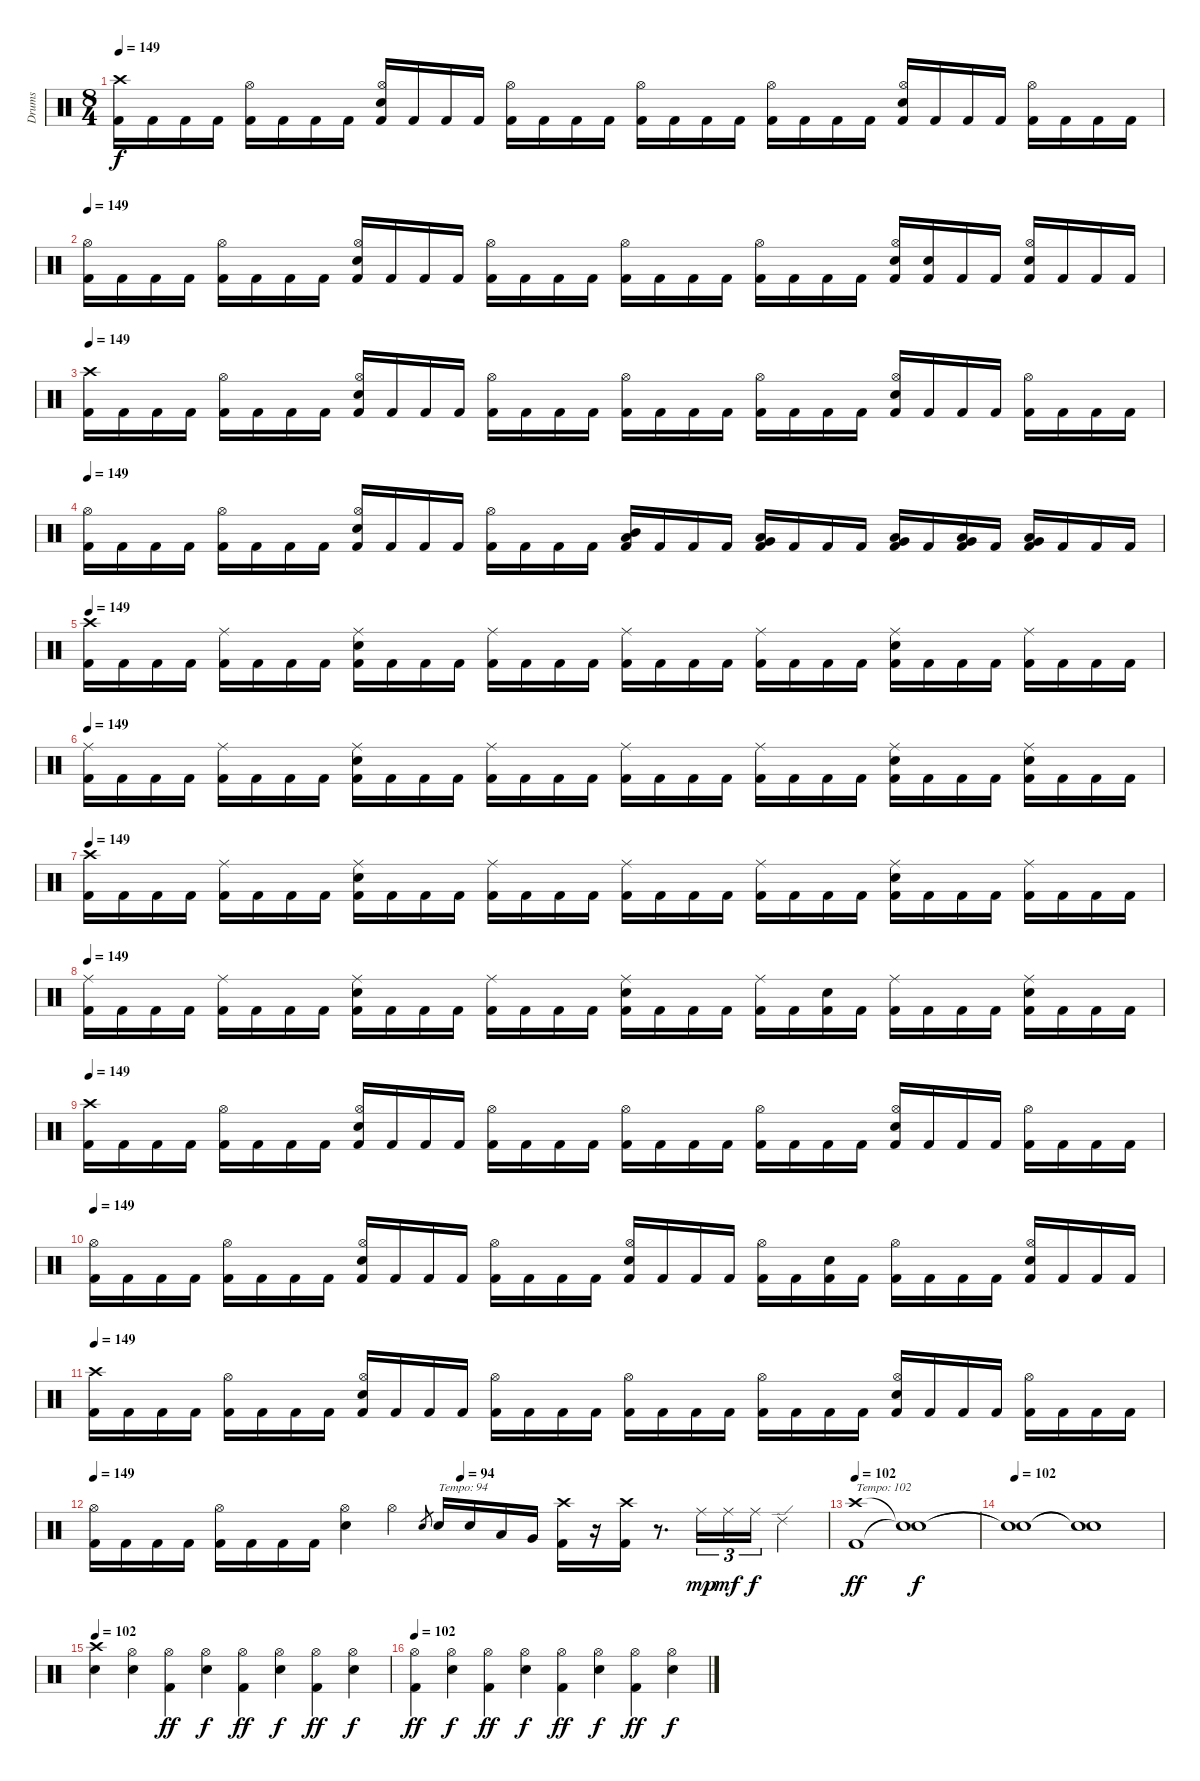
\track ("Drums" "Drums") {instrument percussion}
\staff {score}
\articulation defaults
\ts (8 4)
\tempo 149
\clef neutral
\ks c
("Crash high (hit)" "Kick (hit) 2").16{dy f} "Kick (hit) 2".16 "Kick (hit) 2".16 "Kick (hit) 2".16 ("Hi-Hat (open)" "Kick (hit) 2").16 "Kick (hit) 2".16 "Kick (hit) 2".16 "Kick (hit) 2".16 ("Hi-Hat (open)" "Electric Snare (hit)" "Kick (hit) 2").16 "Kick (hit) 2".16 "Kick (hit) 2".16 "Kick (hit) 2".16 ("Hi-Hat (open)" "Kick (hit) 2").16 "Kick (hit) 2".16 "Kick (hit) 2".16 "Kick (hit) 2".16 ("Hi-Hat (open)" "Kick (hit) 2").16 "Kick (hit) 2".16 "Kick (hit) 2".16 "Kick (hit) 2".16 ("Hi-Hat (open)" "Kick (hit) 2").16 "Kick (hit) 2".16 "Kick (hit) 2".16 "Kick (hit) 2".16 ("Hi-Hat (open)" "Electric Snare (hit)" "Kick (hit) 2").16 "Kick (hit) 2".16 "Kick (hit) 2".16 "Kick (hit) 2".16 ("Hi-Hat (open)" "Kick (hit) 2").16 "Kick (hit) 2".16 "Kick (hit) 2".16 "Kick (hit) 2".16 |
\tempo 149
("Hi-Hat (open)" "Kick (hit) 2").16 "Kick (hit) 2".16 "Kick (hit) 2".16 "Kick (hit) 2".16 ("Hi-Hat (open)" "Kick (hit) 2").16 "Kick (hit) 2".16 "Kick (hit) 2".16 "Kick (hit) 2".16 ("Hi-Hat (open)" "Electric Snare (hit)" "Kick (hit) 2").16 "Kick (hit) 2".16 "Kick (hit) 2".16 "Kick (hit) 2".16 ("Hi-Hat (open)" "Kick (hit) 2").16 "Kick (hit) 2".16 "Kick (hit) 2".16 "Kick (hit) 2".16 ("Hi-Hat (open)" "Kick (hit) 2").16 "Kick (hit) 2".16 "Kick (hit) 2".16 "Kick (hit) 2".16 ("Hi-Hat (open)" "Kick (hit) 2").16 "Kick (hit) 2".16 "Kick (hit) 2".16 "Kick (hit) 2".16 ("Hi-Hat (open)" "Electric Snare (hit)" "Kick (hit) 2").16 ("Electric Snare (hit)" "Kick (hit) 2").16 "Kick (hit) 2".16 "Kick (hit) 2".16 ("Hi-Hat (open)" "Electric Snare (hit)" "Kick (hit) 2").16 "Kick (hit) 2".16 "Kick (hit) 2".16 "Kick (hit) 2".16 |
\tempo 149
("Crash high (hit)" "Kick (hit) 2").16 "Kick (hit) 2".16 "Kick (hit) 2".16 "Kick (hit) 2".16 ("Hi-Hat (open)" "Kick (hit) 2").16 "Kick (hit) 2".16 "Kick (hit) 2".16 "Kick (hit) 2".16 ("Hi-Hat (open)" "Electric Snare (hit)" "Kick (hit) 2").16 "Kick (hit) 2".16 "Kick (hit) 2".16 "Kick (hit) 2".16 ("Hi-Hat (open)" "Kick (hit) 2").16 "Kick (hit) 2".16 "Kick (hit) 2".16 "Kick (hit) 2".16 ("Hi-Hat (open)" "Kick (hit) 2").16 "Kick (hit) 2".16 "Kick (hit) 2".16 "Kick (hit) 2".16 ("Hi-Hat (open)" "Kick (hit) 2").16 "Kick (hit) 2".16 "Kick (hit) 2".16 "Kick (hit) 2".16 ("Hi-Hat (open)" "Electric Snare (hit)" "Kick (hit) 2").16 "Kick (hit) 2".16 "Kick (hit) 2".16 "Kick (hit) 2".16 ("Hi-Hat (open)" "Kick (hit) 2").16 "Kick (hit) 2".16 "Kick (hit) 2".16 "Kick (hit) 2".16 |
\tempo 149
("Hi-Hat (open)" "Kick (hit) 2").16 "Kick (hit) 2".16 "Kick (hit) 2".16 "Kick (hit) 2".16 ("Hi-Hat (open)" "Kick (hit) 2").16 "Kick (hit) 2".16 "Kick (hit) 2".16 "Kick (hit) 2".16 ("Hi-Hat (open)" "Electric Snare (hit)" "Kick (hit) 2").16 "Kick (hit) 2".16 "Kick (hit) 2".16 "Kick (hit) 2".16 ("Hi-Hat (open)" "Kick (hit) 2").16 "Kick (hit) 2".16 "Kick (hit) 2".16 "Kick (hit) 2".16 ("Mid Tom (hit)" "Low Tom (hit)" "Kick (hit) 2").16 "Kick (hit) 2".16 "Kick (hit) 2".16 "Kick (hit) 2".16 ("Low Tom (hit)" "Very Low Tom (hit)" "Kick (hit) 2").16 "Kick (hit) 2".16 "Kick (hit) 2".16 "Kick (hit) 2".16 ("Very Low Tom (hit)" "Low Floor Tom (hit)" "Kick (hit) 2").16 "Kick (hit) 2".16 ("Very Low Tom (hit)" "Low Floor Tom (hit)" "Kick (hit) 2").16 "Kick (hit) 2".16 ("Very Low Tom (hit)" "Low Floor Tom (hit)" "Kick (hit) 2").16 "Kick (hit) 2".16 "Kick (hit) 2".16 "Kick (hit) 2".16 |
\tempo 149
("Crash high (hit)" "Kick (hit) 2").16 "Kick (hit) 2".16 "Kick (hit) 2".16 "Kick (hit) 2".16 ("Ride (middle)" "Kick (hit) 2").16 "Kick (hit) 2".16 "Kick (hit) 2".16 "Kick (hit) 2".16 ("Ride (middle)" "Electric Snare (hit)" "Kick (hit) 2").16 "Kick (hit) 2".16 "Kick (hit) 2".16 "Kick (hit) 2".16 ("Ride (middle)" "Kick (hit) 2").16 "Kick (hit) 2".16 "Kick (hit) 2".16 "Kick (hit) 2".16 ("Ride (middle)" "Kick (hit) 2").16 "Kick (hit) 2".16 "Kick (hit) 2".16 "Kick (hit) 2".16 ("Ride (middle)" "Kick (hit) 2").16 "Kick (hit) 2".16 "Kick (hit) 2".16 "Kick (hit) 2".16 ("Ride (middle)" "Electric Snare (hit)" "Kick (hit) 2").16 "Kick (hit) 2".16 "Kick (hit) 2".16 "Kick (hit) 2".16 ("Ride (middle)" "Kick (hit) 2").16 "Kick (hit) 2".16 "Kick (hit) 2".16 "Kick (hit) 2".16 |
\tempo 149
("Ride (middle)" "Kick (hit) 2").16 "Kick (hit) 2".16 "Kick (hit) 2".16 "Kick (hit) 2".16 ("Ride (middle)" "Kick (hit) 2").16 "Kick (hit) 2".16 "Kick (hit) 2".16 "Kick (hit) 2".16 ("Ride (middle)" "Electric Snare (hit)" "Kick (hit) 2").16 "Kick (hit) 2".16 "Kick (hit) 2".16 "Kick (hit) 2".16 ("Ride (middle)" "Kick (hit) 2").16 "Kick (hit) 2".16 "Kick (hit) 2".16 "Kick (hit) 2".16 ("Ride (middle)" "Kick (hit) 2").16 "Kick (hit) 2".16 "Kick (hit) 2".16 "Kick (hit) 2".16 ("Ride (middle)" "Kick (hit) 2").16 "Kick (hit) 2".16 "Kick (hit) 2".16 "Kick (hit) 2".16 ("Ride (middle)" "Electric Snare (hit)" "Kick (hit) 2").16 "Kick (hit) 2".16 "Kick (hit) 2".16 "Kick (hit) 2".16 ("Ride (middle)" "Electric Snare (hit)" "Kick (hit) 2").16 "Kick (hit) 2".16 "Kick (hit) 2".16 "Kick (hit) 2".16 |
\tempo 149
("Crash high (hit)" "Kick (hit) 2").16 "Kick (hit) 2".16 "Kick (hit) 2".16 "Kick (hit) 2".16 ("Ride (middle)" "Kick (hit) 2").16 "Kick (hit) 2".16 "Kick (hit) 2".16 "Kick (hit) 2".16 ("Ride (middle)" "Electric Snare (hit)" "Kick (hit) 2").16 "Kick (hit) 2".16 "Kick (hit) 2".16 "Kick (hit) 2".16 ("Ride (middle)" "Kick (hit) 2").16 "Kick (hit) 2".16 "Kick (hit) 2".16 "Kick (hit) 2".16 ("Ride (middle)" "Kick (hit) 2").16 "Kick (hit) 2".16 "Kick (hit) 2".16 "Kick (hit) 2".16 ("Ride (middle)" "Kick (hit) 2").16 "Kick (hit) 2".16 "Kick (hit) 2".16 "Kick (hit) 2".16 ("Ride (middle)" "Electric Snare (hit)" "Kick (hit) 2").16 "Kick (hit) 2".16 "Kick (hit) 2".16 "Kick (hit) 2".16 ("Ride (middle)" "Kick (hit) 2").16 "Kick (hit) 2".16 "Kick (hit) 2".16 "Kick (hit) 2".16 |
\tempo 149
("Ride (middle)" "Kick (hit) 2").16 "Kick (hit) 2".16 "Kick (hit) 2".16 "Kick (hit) 2".16 ("Ride (middle)" "Kick (hit) 2").16 "Kick (hit) 2".16 "Kick (hit) 2".16 "Kick (hit) 2".16 ("Ride (middle)" "Electric Snare (hit)" "Kick (hit) 2").16 "Kick (hit) 2".16 "Kick (hit) 2".16 "Kick (hit) 2".16 ("Ride (middle)" "Kick (hit) 2").16 "Kick (hit) 2".16 "Kick (hit) 2".16 "Kick (hit) 2".16 ("Ride (middle)" "Electric Snare (hit)" "Kick (hit) 2").16 "Kick (hit) 2".16 "Kick (hit) 2".16 "Kick (hit) 2".16 ("Ride (middle)" "Kick (hit) 2").16 "Kick (hit) 2".16 ("Electric Snare (hit)" "Kick (hit) 2").16 "Kick (hit) 2".16 ("Ride (middle)" "Kick (hit) 2").16 "Kick (hit) 2".16 "Kick (hit) 2".16 "Kick (hit) 2".16 ("Ride (middle)" "Electric Snare (hit)" "Kick (hit) 2").16 "Kick (hit) 2".16 "Kick (hit) 2".16 "Kick (hit) 2".16 |
\tempo 149
("Crash high (hit)" "Kick (hit) 2").16 "Kick (hit) 2".16 "Kick (hit) 2".16 "Kick (hit) 2".16 ("Hi-Hat (open)" "Kick (hit) 2").16 "Kick (hit) 2".16 "Kick (hit) 2".16 "Kick (hit) 2".16 ("Hi-Hat (open)" "Electric Snare (hit)" "Kick (hit) 2").16 "Kick (hit) 2".16 "Kick (hit) 2".16 "Kick (hit) 2".16 ("Hi-Hat (open)" "Kick (hit) 2").16 "Kick (hit) 2".16 "Kick (hit) 2".16 "Kick (hit) 2".16 ("Hi-Hat (open)" "Kick (hit) 2").16 "Kick (hit) 2".16 "Kick (hit) 2".16 "Kick (hit) 2".16 ("Hi-Hat (open)" "Kick (hit) 2").16 "Kick (hit) 2".16 "Kick (hit) 2".16 "Kick (hit) 2".16 ("Hi-Hat (open)" "Electric Snare (hit)" "Kick (hit) 2").16 "Kick (hit) 2".16 "Kick (hit) 2".16 "Kick (hit) 2".16 ("Hi-Hat (open)" "Kick (hit) 2").16 "Kick (hit) 2".16 "Kick (hit) 2".16 "Kick (hit) 2".16 |
\tempo 149
("Hi-Hat (open)" "Kick (hit) 2").16 "Kick (hit) 2".16 "Kick (hit) 2".16 "Kick (hit) 2".16 ("Hi-Hat (open)" "Kick (hit) 2").16 "Kick (hit) 2".16 "Kick (hit) 2".16 "Kick (hit) 2".16 ("Hi-Hat (open)" "Electric Snare (hit)" "Kick (hit) 2").16 "Kick (hit) 2".16 "Kick (hit) 2".16 "Kick (hit) 2".16 ("Hi-Hat (open)" "Kick (hit) 2").16 "Kick (hit) 2".16 "Kick (hit) 2".16 "Kick (hit) 2".16 ("Hi-Hat (open)" "Electric Snare (hit)" "Kick (hit) 2").16 "Kick (hit) 2".16 "Kick (hit) 2".16 "Kick (hit) 2".16 ("Hi-Hat (open)" "Kick (hit) 2").16 "Kick (hit) 2".16 ("Electric Snare (hit)" "Kick (hit) 2").16 "Kick (hit) 2".16 ("Hi-Hat (open)" "Kick (hit) 2").16 "Kick (hit) 2".16 "Kick (hit) 2".16 "Kick (hit) 2".16 ("Hi-Hat (open)" "Electric Snare (hit)" "Kick (hit) 2").16 "Kick (hit) 2".16 "Kick (hit) 2".16 "Kick (hit) 2".16 |
\tempo 149
("Crash high (hit)" "Kick (hit) 2").16 "Kick (hit) 2".16 "Kick (hit) 2".16 "Kick (hit) 2".16 ("Hi-Hat (open)" "Kick (hit) 2").16 "Kick (hit) 2".16 "Kick (hit) 2".16 "Kick (hit) 2".16 ("Hi-Hat (open)" "Electric Snare (hit)" "Kick (hit) 2").16 "Kick (hit) 2".16 "Kick (hit) 2".16 "Kick (hit) 2".16 ("Hi-Hat (open)" "Kick (hit) 2").16 "Kick (hit) 2".16 "Kick (hit) 2".16 "Kick (hit) 2".16 ("Hi-Hat (open)" "Kick (hit) 2").16 "Kick (hit) 2".16 "Kick (hit) 2".16 "Kick (hit) 2".16 ("Hi-Hat (open)" "Kick (hit) 2").16 "Kick (hit) 2".16 "Kick (hit) 2".16 "Kick (hit) 2".16 ("Hi-Hat (open)" "Electric Snare (hit)" "Kick (hit) 2").16 "Kick (hit) 2".16 "Kick (hit) 2".16 "Kick (hit) 2".16 ("Hi-Hat (open)" "Kick (hit) 2").16 "Kick (hit) 2".16 "Kick (hit) 2".16 "Kick (hit) 2".16 |
\tempo 149
\tempo (94 0.5)
("Hi-Hat (open)" "Kick (hit) 2").16 "Kick (hit) 2".16 "Kick (hit) 2".16 "Kick (hit) 2".16 ("Hi-Hat (open)" "Kick (hit) 2").16 "Kick (hit) 2".16 "Kick (hit) 2".16 "Kick (hit) 2".16 ("Hi-Hat (open)" "Electric Snare (hit)").4 "Hi-Hat (open)".4 "Electric Snare (hit)".8{gr} "Electric Snare (hit)".16{txt "Tempo: 94"} "Electric Snare (hit)".16 "Low Tom (hit)".16 "Very Low Tom (hit)".16 ("Crash high (hit)" "Kick (hit) 2").16 r.16 ("Crash high (hit)" "Kick (hit) 2").16 r.8{d} "Ride (middle)".16{tu (3 2) dy mp} "Ride (middle)".16{tu (3 2) dy mf} "Ride (middle)".16{tu (3 2) dy f} "Ride (edge) 2".4 |
\tempo 102
("Crash high (hit)" "Kick (hit) 2").1{txt "Tempo: 102" dy ff} ("Snare (hit)"{t} "Snare (hit)"{t}).1{dy f} |
\tempo 102
("Snare (hit)"{t} "Snare (hit)"{t}).1 ("Snare (hit)"{t} "Snare (hit)"{t}).1 |
\tempo 102
("Crash high (hit)" "Electric Snare (hit)").4 ("Hi-Hat (open)" "Electric Snare (hit)").4 ("Hi-Hat (open)" "Kick (hit) 2").4{dy ff} ("Hi-Hat (open)" "Electric Snare (hit)").4{dy f} ("Hi-Hat (open)" "Kick (hit) 2").4{dy ff} ("Hi-Hat (open)" "Electric Snare (hit)").4{dy f} ("Hi-Hat (open)" "Kick (hit) 2").4{dy ff} ("Hi-Hat (open)" "Electric Snare (hit)").4{dy f} |
\tempo 102
("Hi-Hat (open)" "Kick (hit) 2").4{dy ff} ("Hi-Hat (open)" "Electric Snare (hit)").4{dy f} ("Hi-Hat (open)" "Kick (hit) 2").4{dy ff} ("Hi-Hat (open)" "Electric Snare (hit)").4{dy f} ("Hi-Hat (open)" "Kick (hit) 2").4{dy ff} ("Hi-Hat (open)" "Electric Snare (hit)").4{dy f} ("Hi-Hat (open)" "Kick (hit) 2").4{dy ff} ("Hi-Hat (open)" "Electric Snare (hit)").4{dy f}
